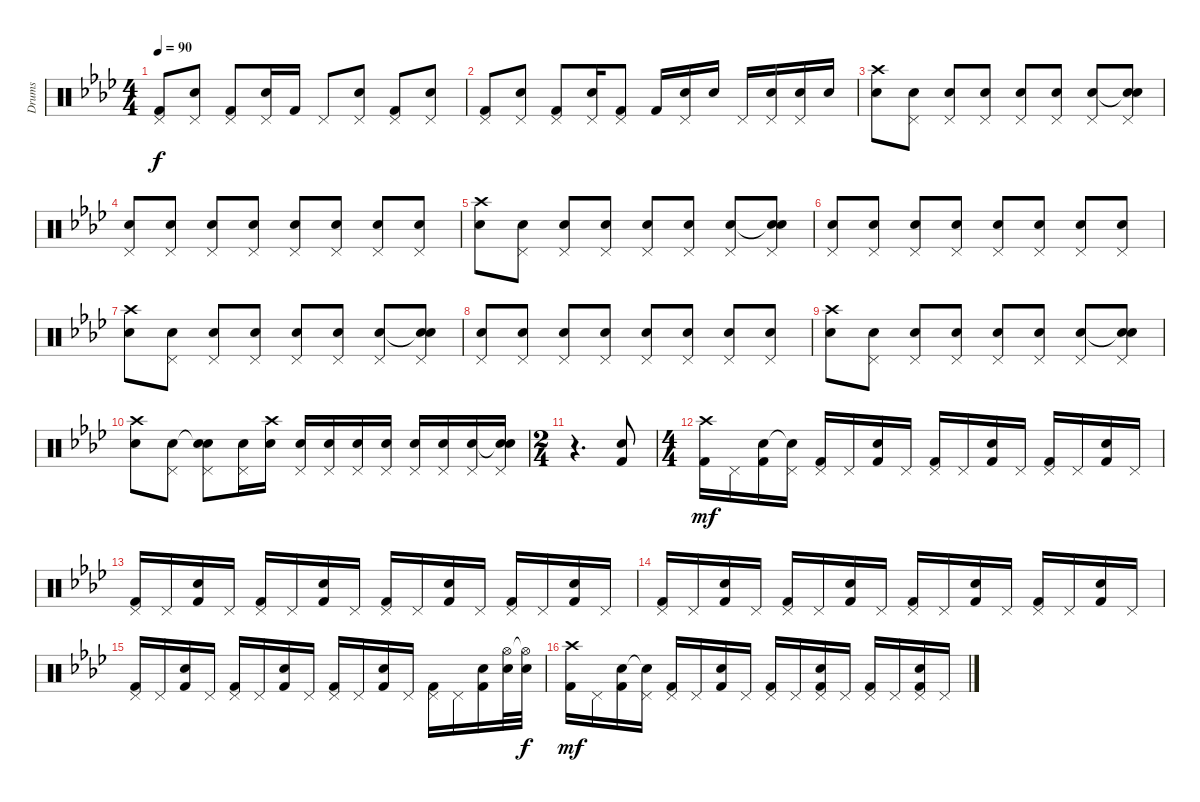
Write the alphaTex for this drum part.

\track ("Drums" "Drums") {instrument percussion}
\staff {score}
\articulation defaults
\ts (4 4)
\tempo 90
\clef neutral
\ks ab
("Kick (hit) 2" "Pedal Hi-Hat (hit)").8{dy f} ("Snare (hit) 2" "Pedal Hi-Hat (hit)").8 ("Kick (hit) 2" "Pedal Hi-Hat (hit)").8 ("Snare (hit) 2" "Pedal Hi-Hat (hit)").16 "Kick (hit) 2".16 "Pedal Hi-Hat (hit)".8 ("Snare (hit) 2" "Pedal Hi-Hat (hit)").8 ("Kick (hit) 2" "Pedal Hi-Hat (hit)").8 ("Snare (hit) 2" "Pedal Hi-Hat (hit)").8 |
("Kick (hit) 2" "Pedal Hi-Hat (hit)").8 ("Snare (hit) 2" "Pedal Hi-Hat (hit)").8 ("Kick (hit) 2" "Pedal Hi-Hat (hit)").8 ("Snare (hit) 2" "Pedal Hi-Hat (hit)").16 ("Kick (hit) 2" "Pedal Hi-Hat (hit)").8 "Kick (hit) 2".16 ("Snare (hit) 2" "Pedal Hi-Hat (hit)").16 "Snare (hit) 2".16 "Pedal Hi-Hat (hit)".16 ("Snare (hit) 2" "Pedal Hi-Hat (hit)").16 ("Snare (hit) 2" "Pedal Hi-Hat (hit)").16 "Snare (hit) 2".16 |
("Crash high (hit)" "Snare (hit) 2").8 ("Snare (hit) 2" "Pedal Hi-Hat (hit)").8 ("Snare (hit) 2" "Pedal Hi-Hat (hit)").8 ("Snare (hit) 2" "Pedal Hi-Hat (hit)").8 ("Snare (hit) 2" "Pedal Hi-Hat (hit)").8 ("Snare (hit) 2" "Pedal Hi-Hat (hit)").8 ("Snare (hit) 2" "Pedal Hi-Hat (hit)").8 ("Snare (hit)"{t} "Snare (hit) 2" "Pedal Hi-Hat (hit)").8 |
("Snare (hit) 2" "Pedal Hi-Hat (hit)").8 ("Snare (hit) 2" "Pedal Hi-Hat (hit)").8 ("Snare (hit) 2" "Pedal Hi-Hat (hit)").8 ("Snare (hit) 2" "Pedal Hi-Hat (hit)").8 ("Snare (hit) 2" "Pedal Hi-Hat (hit)").8 ("Snare (hit) 2" "Pedal Hi-Hat (hit)").8 ("Snare (hit) 2" "Pedal Hi-Hat (hit)").8 ("Snare (hit) 2" "Pedal Hi-Hat (hit)").8 |
("Crash high (hit)" "Snare (hit) 2").8 ("Snare (hit) 2" "Pedal Hi-Hat (hit)").8 ("Snare (hit) 2" "Pedal Hi-Hat (hit)").8 ("Snare (hit) 2" "Pedal Hi-Hat (hit)").8 ("Snare (hit) 2" "Pedal Hi-Hat (hit)").8 ("Snare (hit) 2" "Pedal Hi-Hat (hit)").8 ("Snare (hit) 2" "Pedal Hi-Hat (hit)").8 ("Snare (hit)"{t} "Snare (hit) 2" "Pedal Hi-Hat (hit)").8 |
("Snare (hit) 2" "Pedal Hi-Hat (hit)").8 ("Snare (hit) 2" "Pedal Hi-Hat (hit)").8 ("Snare (hit) 2" "Pedal Hi-Hat (hit)").8 ("Snare (hit) 2" "Pedal Hi-Hat (hit)").8 ("Snare (hit) 2" "Pedal Hi-Hat (hit)").8 ("Snare (hit) 2" "Pedal Hi-Hat (hit)").8 ("Snare (hit) 2" "Pedal Hi-Hat (hit)").8 ("Snare (hit) 2" "Pedal Hi-Hat (hit)").8 |
("Crash high (hit)" "Snare (hit) 2").8 ("Snare (hit) 2" "Pedal Hi-Hat (hit)").8 ("Snare (hit) 2" "Pedal Hi-Hat (hit)").8 ("Snare (hit) 2" "Pedal Hi-Hat (hit)").8 ("Snare (hit) 2" "Pedal Hi-Hat (hit)").8 ("Snare (hit) 2" "Pedal Hi-Hat (hit)").8 ("Snare (hit) 2" "Pedal Hi-Hat (hit)").8 ("Snare (hit)"{t} "Snare (hit) 2" "Pedal Hi-Hat (hit)").8 |
("Snare (hit) 2" "Pedal Hi-Hat (hit)").8 ("Snare (hit) 2" "Pedal Hi-Hat (hit)").8 ("Snare (hit) 2" "Pedal Hi-Hat (hit)").8 ("Snare (hit) 2" "Pedal Hi-Hat (hit)").8 ("Snare (hit) 2" "Pedal Hi-Hat (hit)").8 ("Snare (hit) 2" "Pedal Hi-Hat (hit)").8 ("Snare (hit) 2" "Pedal Hi-Hat (hit)").8 ("Snare (hit) 2" "Pedal Hi-Hat (hit)").8 |
("Crash high (hit)" "Snare (hit) 2").8 ("Snare (hit) 2" "Pedal Hi-Hat (hit)").8 ("Snare (hit) 2" "Pedal Hi-Hat (hit)").8 ("Snare (hit) 2" "Pedal Hi-Hat (hit)").8 ("Snare (hit) 2" "Pedal Hi-Hat (hit)").8 ("Snare (hit) 2" "Pedal Hi-Hat (hit)").8 ("Snare (hit) 2" "Pedal Hi-Hat (hit)").8 ("Snare (hit)"{t} "Snare (hit) 2" "Pedal Hi-Hat (hit)").8 |
("Crash high (hit)" "Snare (hit) 2").8 ("Snare (hit) 2" "Pedal Hi-Hat (hit)").8 ("Snare (hit)"{t} "Snare (hit) 2" "Pedal Hi-Hat (hit)").8 ("Snare (hit) 2" "Pedal Hi-Hat (hit)").16 ("Crash high (hit)" "Snare (hit) 2").16 ("Snare (hit) 2" "Pedal Hi-Hat (hit)").16 ("Snare (hit) 2" "Pedal Hi-Hat (hit)").16 ("Snare (hit) 2" "Pedal Hi-Hat (hit)").16 ("Snare (hit) 2" "Pedal Hi-Hat (hit)").16 ("Snare (hit) 2" "Pedal Hi-Hat (hit)").16 ("Snare (hit) 2" "Pedal Hi-Hat (hit)").16 ("Snare (hit) 2" "Pedal Hi-Hat (hit)").16 ("Snare (hit)"{t} "Snare (hit) 2" "Pedal Hi-Hat (hit)").16 |
\ts (2 4)
r.4{d} ("Snare (hit) 2" "Kick (hit) 2").8 |
\ts (4 4)
("Crash high (hit)" "Kick (hit) 2").16{dy mf} "Pedal Hi-Hat (hit)".16 ("Snare (hit) 2" "Kick (hit) 2").16 ("Snare (hit)"{t} "Pedal Hi-Hat (hit)").16 ("Pedal Hi-Hat (hit)" "Kick (hit) 2").16 "Pedal Hi-Hat (hit)".16 ("Snare (hit) 2" "Kick (hit) 2").16 "Pedal Hi-Hat (hit)".16 ("Pedal Hi-Hat (hit)" "Kick (hit) 2").16 "Pedal Hi-Hat (hit)".16 ("Snare (hit) 2" "Kick (hit) 2").16 "Pedal Hi-Hat (hit)".16 ("Pedal Hi-Hat (hit)" "Kick (hit) 2").16 "Pedal Hi-Hat (hit)".16 ("Snare (hit) 2" "Kick (hit) 2").16 "Pedal Hi-Hat (hit)".16 |
("Pedal Hi-Hat (hit)" "Kick (hit) 2").16 "Pedal Hi-Hat (hit)".16 ("Snare (hit) 2" "Kick (hit) 2").16 "Pedal Hi-Hat (hit)".16 ("Pedal Hi-Hat (hit)" "Kick (hit) 2").16 "Pedal Hi-Hat (hit)".16 ("Snare (hit) 2" "Kick (hit) 2").16 "Pedal Hi-Hat (hit)".16 ("Pedal Hi-Hat (hit)" "Kick (hit) 2").16 "Pedal Hi-Hat (hit)".16 ("Snare (hit) 2" "Kick (hit) 2").16 "Pedal Hi-Hat (hit)".16 ("Pedal Hi-Hat (hit)" "Kick (hit) 2").16 "Pedal Hi-Hat (hit)".16 ("Snare (hit) 2" "Kick (hit) 2").16 "Pedal Hi-Hat (hit)".16 |
("Pedal Hi-Hat (hit)" "Kick (hit) 2").16 "Pedal Hi-Hat (hit)".16 ("Snare (hit) 2" "Kick (hit) 2").16 "Pedal Hi-Hat (hit)".16 ("Pedal Hi-Hat (hit)" "Kick (hit) 2").16 "Pedal Hi-Hat (hit)".16 ("Snare (hit) 2" "Kick (hit) 2").16 "Pedal Hi-Hat (hit)".16 ("Pedal Hi-Hat (hit)" "Kick (hit) 2").16 "Pedal Hi-Hat (hit)".16 ("Snare (hit) 2" "Kick (hit) 2").16 "Pedal Hi-Hat (hit)".16 ("Pedal Hi-Hat (hit)" "Kick (hit) 2").16 "Pedal Hi-Hat (hit)".16 ("Snare (hit) 2" "Kick (hit) 2").16 "Pedal Hi-Hat (hit)".16 |
("Pedal Hi-Hat (hit)" "Kick (hit) 2").16 "Pedal Hi-Hat (hit)".16 ("Snare (hit) 2" "Kick (hit) 2").16 "Pedal Hi-Hat (hit)".16 ("Pedal Hi-Hat (hit)" "Kick (hit) 2").16 "Pedal Hi-Hat (hit)".16 ("Snare (hit) 2" "Kick (hit) 2").16 "Pedal Hi-Hat (hit)".16 ("Pedal Hi-Hat (hit)" "Kick (hit) 2").16 "Pedal Hi-Hat (hit)".16 ("Snare (hit) 2" "Kick (hit) 2").16 "Pedal Hi-Hat (hit)".16 ("Pedal Hi-Hat (hit)" "Kick (hit) 2").16 "Pedal Hi-Hat (hit)".16 ("Snare (hit) 2" "Kick (hit) 2").16 ("Snare (hit) 2" "Hi-Hat (open)").32 ("Snare (hit) 2" "Hi-Hat (open)"{t}).32{dy f} |
("Crash high (hit)" "Kick (hit) 2").16{dy mf} "Pedal Hi-Hat (hit)".16 ("Snare (hit) 2" "Kick (hit) 2").16 ("Snare (hit)"{t} "Pedal Hi-Hat (hit)").16 ("Pedal Hi-Hat (hit)" "Kick (hit) 2").16 "Pedal Hi-Hat (hit)".16 ("Snare (hit) 2" "Kick (hit) 2").16 "Pedal Hi-Hat (hit)".16 ("Pedal Hi-Hat (hit)" "Kick (hit) 2").16 "Pedal Hi-Hat (hit)".16 ("Snare (hit) 2" "Pedal Hi-Hat (hit)" "Kick (hit) 2").16 "Pedal Hi-Hat (hit)".16 ("Pedal Hi-Hat (hit)" "Kick (hit) 2").16 "Pedal Hi-Hat (hit)".16 ("Snare (hit) 2" "Pedal Hi-Hat (hit)" "Kick (hit) 2").16 "Pedal Hi-Hat (hit)".16
